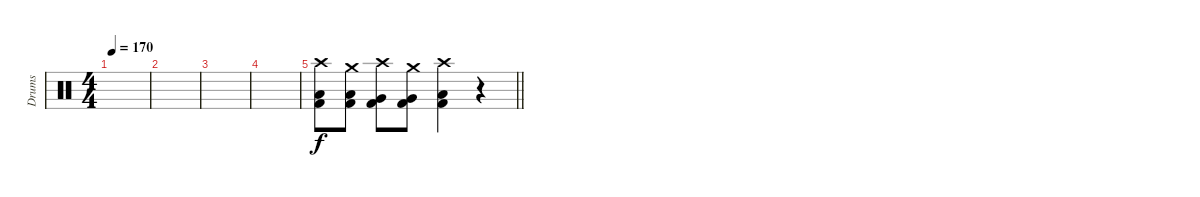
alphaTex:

\track ("Drums" "Drums") {instrument percussion}
\staff {score}
\articulation defaults
\ts (4 4)
\tempo 170
\clef neutral
\ks c
|
|
|
|
\barLineRight lightlight
("Crash high (hit)" "Low Tom (hit)" "Kick (hit) 2").8 ("Crash medium (hit)" "Low Tom (hit)" "Kick (hit) 2").8 ("Crash high (hit)" "Very Low Tom (hit)" "Kick (hit) 2").8 ("Crash medium (hit)" "Very Low Tom (hit)" "Kick (hit) 2").8 ("Crash high (hit)" "Low Floor Tom (hit)" "Kick (hit) 2").4 r.4
